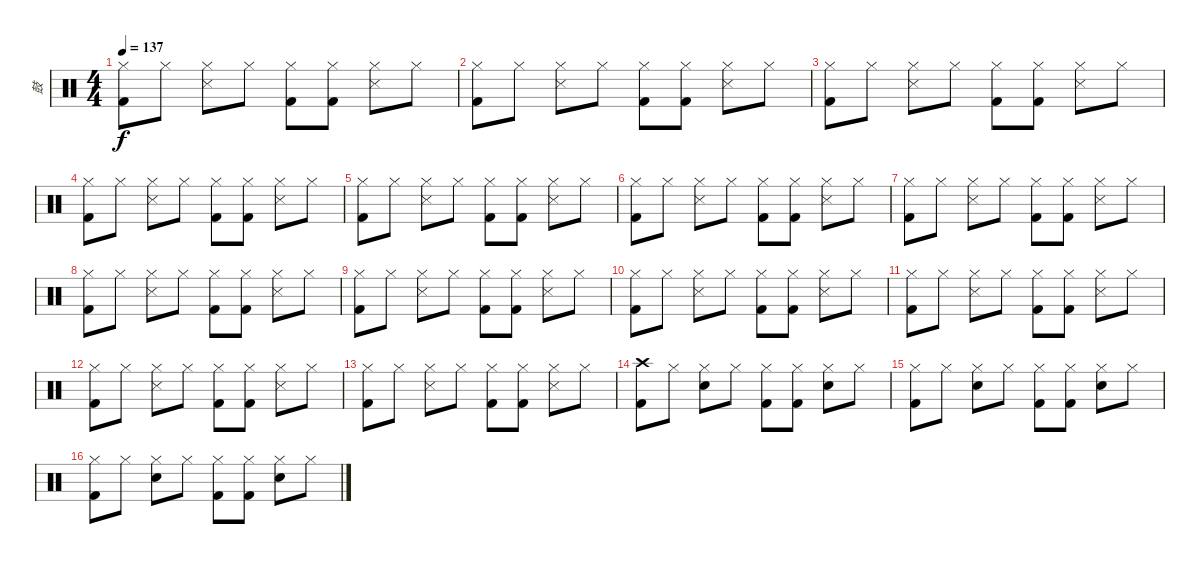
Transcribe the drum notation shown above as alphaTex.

\track ("鼓" "鼓") {instrument percussion}
\staff {score}
\articulation defaults
\ts (4 4)
\tempo 137
\clef neutral
\ks c
("Hi-Hat (closed)" "Kick (hit) 2").8{dy f} "Hi-Hat (closed)".8 ("Hi-Hat (closed)" "Snare (side stick) 3").8 "Hi-Hat (closed)".8 ("Hi-Hat (closed)" "Kick (hit) 2").8 ("Hi-Hat (closed)" "Kick (hit) 2").8 ("Hi-Hat (closed)" "Snare (side stick) 3").8 "Hi-Hat (closed)".8 |
("Hi-Hat (closed)" "Kick (hit) 2").8 "Hi-Hat (closed)".8 ("Hi-Hat (closed)" "Snare (side stick) 3").8 "Hi-Hat (closed)".8 ("Hi-Hat (closed)" "Kick (hit) 2").8 ("Hi-Hat (closed)" "Kick (hit) 2").8 ("Hi-Hat (closed)" "Snare (side stick) 3").8 "Hi-Hat (closed)".8 |
("Hi-Hat (closed)" "Kick (hit) 2").8 "Hi-Hat (closed)".8 ("Hi-Hat (closed)" "Snare (side stick) 3").8 "Hi-Hat (closed)".8 ("Hi-Hat (closed)" "Kick (hit) 2").8 ("Hi-Hat (closed)" "Kick (hit) 2").8 ("Hi-Hat (closed)" "Snare (side stick) 3").8 "Hi-Hat (closed)".8 |
("Hi-Hat (closed)" "Kick (hit) 2").8 "Hi-Hat (closed)".8 ("Hi-Hat (closed)" "Snare (side stick) 3").8 "Hi-Hat (closed)".8 ("Hi-Hat (closed)" "Kick (hit) 2").8 ("Hi-Hat (closed)" "Kick (hit) 2").8 ("Hi-Hat (closed)" "Snare (side stick) 3").8 "Hi-Hat (closed)".8 |
("Hi-Hat (closed)" "Kick (hit) 2").8 "Hi-Hat (closed)".8 ("Hi-Hat (closed)" "Snare (side stick) 3").8 "Hi-Hat (closed)".8 ("Hi-Hat (closed)" "Kick (hit) 2").8 ("Hi-Hat (closed)" "Kick (hit) 2").8 ("Hi-Hat (closed)" "Snare (side stick) 3").8 "Hi-Hat (closed)".8 |
("Hi-Hat (closed)" "Kick (hit) 2").8 "Hi-Hat (closed)".8 ("Hi-Hat (closed)" "Snare (side stick) 3").8 "Hi-Hat (closed)".8 ("Hi-Hat (closed)" "Kick (hit) 2").8 ("Hi-Hat (closed)" "Kick (hit) 2").8 ("Hi-Hat (closed)" "Snare (side stick) 3").8 "Hi-Hat (closed)".8 |
("Hi-Hat (closed)" "Kick (hit) 2").8 "Hi-Hat (closed)".8 ("Hi-Hat (closed)" "Snare (side stick) 3").8 "Hi-Hat (closed)".8 ("Hi-Hat (closed)" "Kick (hit) 2").8 ("Hi-Hat (closed)" "Kick (hit) 2").8 ("Hi-Hat (closed)" "Snare (side stick) 3").8 "Hi-Hat (closed)".8 |
("Hi-Hat (closed)" "Kick (hit) 2").8 "Hi-Hat (closed)".8 ("Hi-Hat (closed)" "Snare (side stick) 3").8 "Hi-Hat (closed)".8 ("Hi-Hat (closed)" "Kick (hit) 2").8 ("Hi-Hat (closed)" "Kick (hit) 2").8 ("Hi-Hat (closed)" "Snare (side stick) 3").8 "Hi-Hat (closed)".8 |
("Hi-Hat (closed)" "Kick (hit) 2").8 "Hi-Hat (closed)".8 ("Hi-Hat (closed)" "Snare (side stick) 3").8 "Hi-Hat (closed)".8 ("Hi-Hat (closed)" "Kick (hit) 2").8 ("Hi-Hat (closed)" "Kick (hit) 2").8 ("Hi-Hat (closed)" "Snare (side stick) 3").8 "Hi-Hat (closed)".8 |
("Hi-Hat (closed)" "Kick (hit) 2").8 "Hi-Hat (closed)".8 ("Hi-Hat (closed)" "Snare (side stick) 3").8 "Hi-Hat (closed)".8 ("Hi-Hat (closed)" "Kick (hit) 2").8 ("Hi-Hat (closed)" "Kick (hit) 2").8 ("Hi-Hat (closed)" "Snare (side stick) 3").8 "Hi-Hat (closed)".8 |
("Hi-Hat (closed)" "Kick (hit) 2").8 "Hi-Hat (closed)".8 ("Hi-Hat (closed)" "Snare (side stick) 3").8 "Hi-Hat (closed)".8 ("Hi-Hat (closed)" "Kick (hit) 2").8 ("Hi-Hat (closed)" "Kick (hit) 2").8 ("Hi-Hat (closed)" "Snare (side stick) 3").8 "Hi-Hat (closed)".8 |
("Hi-Hat (closed)" "Kick (hit) 2").8 "Hi-Hat (closed)".8 ("Hi-Hat (closed)" "Snare (side stick) 3").8 "Hi-Hat (closed)".8 ("Hi-Hat (closed)" "Kick (hit) 2").8 ("Hi-Hat (closed)" "Kick (hit) 2").8 ("Hi-Hat (closed)" "Snare (side stick) 3").8 "Hi-Hat (closed)".8 |
("Hi-Hat (closed)" "Kick (hit) 2").8 "Hi-Hat (closed)".8 ("Hi-Hat (closed)" "Snare (side stick) 3").8 "Hi-Hat (closed)".8 ("Hi-Hat (closed)" "Kick (hit) 2").8 ("Hi-Hat (closed)" "Kick (hit) 2").8 ("Hi-Hat (closed)" "Snare (side stick) 3").8 "Hi-Hat (closed)".8 |
("Crash high (hit)" "Kick (hit) 2").8 "Hi-Hat (closed)".8 ("Hi-Hat (closed)" "Snare (hit) 2").8 "Hi-Hat (closed)".8 ("Hi-Hat (closed)" "Kick (hit) 2").8 ("Hi-Hat (closed)" "Kick (hit) 2").8 ("Hi-Hat (closed)" "Snare (hit) 2").8 "Hi-Hat (closed)".8 |
("Hi-Hat (closed)" "Kick (hit) 2").8 "Hi-Hat (closed)".8 ("Hi-Hat (closed)" "Snare (hit) 2").8 "Hi-Hat (closed)".8 ("Hi-Hat (closed)" "Kick (hit) 2").8 ("Hi-Hat (closed)" "Kick (hit) 2").8 ("Hi-Hat (closed)" "Snare (hit) 2").8 "Hi-Hat (closed)".8 |
("Hi-Hat (closed)" "Kick (hit) 2").8 "Hi-Hat (closed)".8 ("Hi-Hat (closed)" "Snare (hit) 2").8 "Hi-Hat (closed)".8 ("Hi-Hat (closed)" "Kick (hit) 2").8 ("Hi-Hat (closed)" "Kick (hit) 2").8 ("Hi-Hat (closed)" "Snare (hit) 2").8 "Hi-Hat (closed)".8
